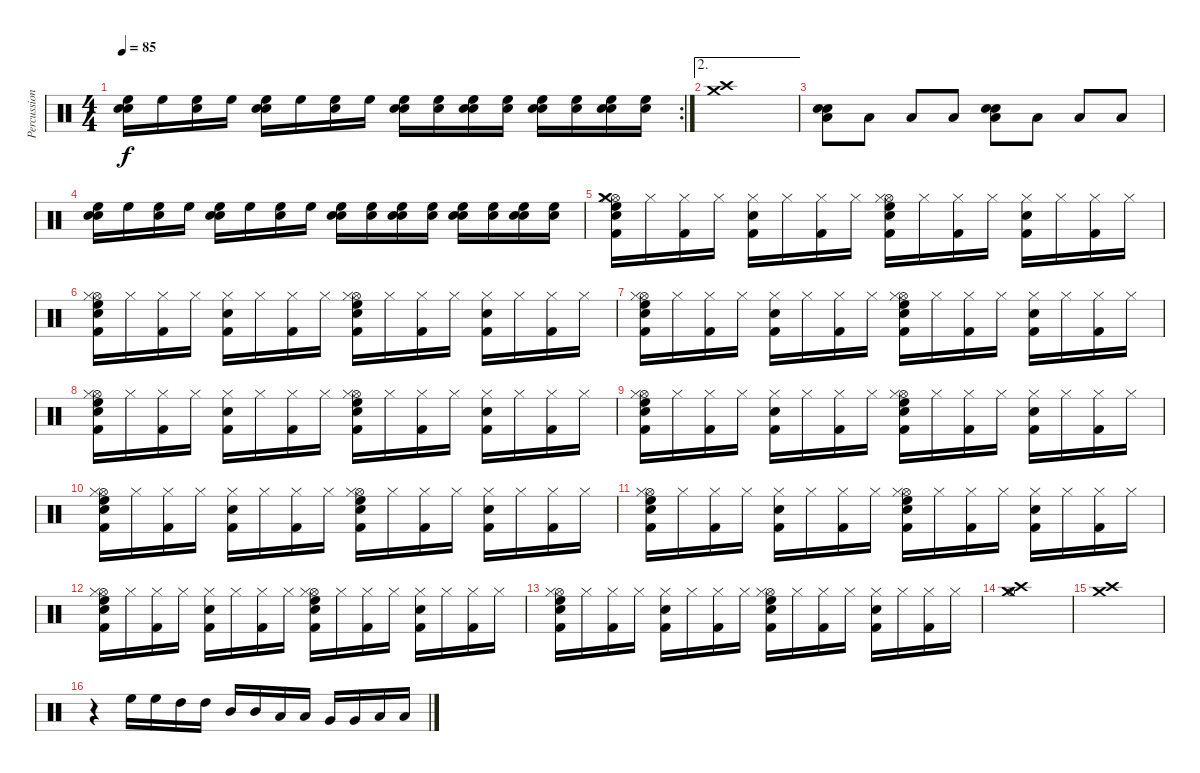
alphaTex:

\track ("Percussions" "Percussion") {instrument percussion}
\staff {score}
\articulation defaults
\rc 2
\ts (4 4)
\tempo 85
\clef neutral
\ks c
("Snare (hit) 2" "Hand Clap (hit)" "High Floor Tom (hit)").16{dy f} "High Floor Tom (hit)".16 ("Snare (hit) 2" "High Floor Tom (hit)").16 "High Floor Tom (hit)".16 ("Snare (hit) 2" "Hand Clap (hit)" "High Floor Tom (hit)").16 "High Floor Tom (hit)".16 ("Snare (hit) 2" "High Floor Tom (hit)").16 "High Floor Tom (hit)".16 ("Snare (hit) 2" "Hand Clap (hit)" "High Floor Tom (hit)").16 ("Snare (hit) 2" "High Floor Tom (hit)").16 ("Snare (hit) 2" "Hand Clap (hit)" "High Floor Tom (hit)").16 ("Snare (hit) 2" "High Floor Tom (hit)").16 ("Snare (hit) 2" "Hand Clap (hit)" "High Floor Tom (hit)").16 ("Snare (hit) 2" "High Floor Tom (hit)").16 ("Snare (hit) 2" "Hand Clap (hit)" "High Floor Tom (hit)").16 ("Snare (hit) 2" "High Floor Tom (hit)").16 |
\ae 2
("Crash medium (hit)" "Crash high (hit)").1 |
("Snare (hit) 2" "Hand Clap (hit)" "Low Floor Tom (hit)").8 "Low Floor Tom (hit)".8 "Low Floor Tom (hit)".8 "Low Floor Tom (hit)".8 ("Snare (hit) 2" "Hand Clap (hit)" "Low Floor Tom (hit)").8 "Low Floor Tom (hit)".8 "Low Floor Tom (hit)".8 "Low Floor Tom (hit)".8 |
("Snare (hit) 2" "Hand Clap (hit)" "High Floor Tom (hit)").16 "High Floor Tom (hit)".16 ("Snare (hit) 2" "High Floor Tom (hit)").16 "High Floor Tom (hit)".16 ("Snare (hit) 2" "Hand Clap (hit)" "High Floor Tom (hit)").16 "High Floor Tom (hit)".16 ("Snare (hit) 2" "High Floor Tom (hit)").16 "High Floor Tom (hit)".16 ("Snare (hit) 2" "Hand Clap (hit)" "High Floor Tom (hit)").16 ("Snare (hit) 2" "High Floor Tom (hit)").16 ("Snare (hit) 2" "Hand Clap (hit)" "High Floor Tom (hit)").16 ("Snare (hit) 2" "High Floor Tom (hit)").16 ("Snare (hit) 2" "Hand Clap (hit)" "High Floor Tom (hit)").16 ("Snare (hit) 2" "High Floor Tom (hit)").16 ("Snare (hit) 2" "Hand Clap (hit)" "High Floor Tom (hit)").16 ("Snare (hit) 2" "High Floor Tom (hit)").16 |
("Hi-Hat (open)" "Snare (hit) 2" "Kick (hit) 2" "High Floor Tom (hit)" "Crash medium (hit)" "Hi-Hat (closed)").16 "Hi-Hat (closed)".16 ("Kick (hit) 2" "Hi-Hat (closed)").16 "Hi-Hat (closed)".16 ("Snare (hit) 2" "Kick (hit) 2" "Hi-Hat (closed)").16 "Hi-Hat (closed)".16 ("Kick (hit) 2" "Hi-Hat (closed)").16 "Hi-Hat (closed)".16 ("Hi-Hat (open)" "Snare (hit) 2" "Kick (hit) 2" "High Floor Tom (hit)" "Hi-Hat (closed)").16 "Hi-Hat (closed)".16 ("Kick (hit) 2" "Hi-Hat (closed)").16 "Hi-Hat (closed)".16 ("Snare (hit) 2" "Kick (hit) 2" "Hi-Hat (closed)").16 "Hi-Hat (closed)".16 ("Kick (hit) 2" "Hi-Hat (closed)").16 "Hi-Hat (closed)".16 |
("Hi-Hat (open)" "Snare (hit) 2" "Kick (hit) 2" "High Floor Tom (hit)" "Hi-Hat (closed)").16 "Hi-Hat (closed)".16 ("Kick (hit) 2" "Hi-Hat (closed)").16 "Hi-Hat (closed)".16 ("Snare (hit) 2" "Kick (hit) 2" "Hi-Hat (closed)").16 "Hi-Hat (closed)".16 ("Kick (hit) 2" "Hi-Hat (closed)").16 "Hi-Hat (closed)".16 ("Hi-Hat (open)" "Snare (hit) 2" "Kick (hit) 2" "High Floor Tom (hit)" "Hi-Hat (closed)").16 "Hi-Hat (closed)".16 ("Kick (hit) 2" "Hi-Hat (closed)").16 "Hi-Hat (closed)".16 ("Snare (hit) 2" "Kick (hit) 2" "Hi-Hat (closed)").16 "Hi-Hat (closed)".16 ("Kick (hit) 2" "Hi-Hat (closed)").16 "Hi-Hat (closed)".16 |
("Hi-Hat (open)" "Snare (hit) 2" "Kick (hit) 2" "High Floor Tom (hit)" "Hi-Hat (closed)").16 "Hi-Hat (closed)".16 ("Kick (hit) 2" "Hi-Hat (closed)").16 "Hi-Hat (closed)".16 ("Snare (hit) 2" "Kick (hit) 2" "Hi-Hat (closed)").16 "Hi-Hat (closed)".16 ("Kick (hit) 2" "Hi-Hat (closed)").16 "Hi-Hat (closed)".16 ("Hi-Hat (open)" "Snare (hit) 2" "Kick (hit) 2" "High Floor Tom (hit)" "Hi-Hat (closed)").16 "Hi-Hat (closed)".16 ("Kick (hit) 2" "Hi-Hat (closed)").16 "Hi-Hat (closed)".16 ("Snare (hit) 2" "Kick (hit) 2" "Hi-Hat (closed)").16 "Hi-Hat (closed)".16 ("Kick (hit) 2" "Hi-Hat (closed)").16 "Hi-Hat (closed)".16 |
("Hi-Hat (open)" "Snare (hit) 2" "Kick (hit) 2" "High Floor Tom (hit)" "Hi-Hat (closed)").16 "Hi-Hat (closed)".16 ("Kick (hit) 2" "Hi-Hat (closed)").16 "Hi-Hat (closed)".16 ("Snare (hit) 2" "Kick (hit) 2" "Hi-Hat (closed)").16 "Hi-Hat (closed)".16 ("Kick (hit) 2" "Hi-Hat (closed)").16 "Hi-Hat (closed)".16 ("Hi-Hat (open)" "Snare (hit) 2" "Kick (hit) 2" "High Floor Tom (hit)" "Hi-Hat (closed)").16 "Hi-Hat (closed)".16 ("Kick (hit) 2" "Hi-Hat (closed)").16 "Hi-Hat (closed)".16 ("Snare (hit) 2" "Kick (hit) 2" "Hi-Hat (closed)").16 "Hi-Hat (closed)".16 ("Kick (hit) 2" "Hi-Hat (closed)").16 "Hi-Hat (closed)".16 |
("Hi-Hat (open)" "Snare (hit) 2" "Kick (hit) 2" "High Floor Tom (hit)" "Hi-Hat (closed)").16 "Hi-Hat (closed)".16 ("Kick (hit) 2" "Hi-Hat (closed)").16 "Hi-Hat (closed)".16 ("Snare (hit) 2" "Kick (hit) 2" "Hi-Hat (closed)").16 "Hi-Hat (closed)".16 ("Kick (hit) 2" "Hi-Hat (closed)").16 "Hi-Hat (closed)".16 ("Hi-Hat (open)" "Snare (hit) 2" "Kick (hit) 2" "High Floor Tom (hit)" "Hi-Hat (closed)").16 "Hi-Hat (closed)".16 ("Kick (hit) 2" "Hi-Hat (closed)").16 "Hi-Hat (closed)".16 ("Snare (hit) 2" "Kick (hit) 2" "Hi-Hat (closed)").16 "Hi-Hat (closed)".16 ("Kick (hit) 2" "Hi-Hat (closed)").16 "Hi-Hat (closed)".16 |
("Hi-Hat (open)" "Snare (hit) 2" "Kick (hit) 2" "High Floor Tom (hit)" "Hi-Hat (closed)").16 "Hi-Hat (closed)".16 ("Kick (hit) 2" "Hi-Hat (closed)").16 "Hi-Hat (closed)".16 ("Snare (hit) 2" "Kick (hit) 2" "Hi-Hat (closed)").16 "Hi-Hat (closed)".16 ("Kick (hit) 2" "Hi-Hat (closed)").16 "Hi-Hat (closed)".16 ("Hi-Hat (open)" "Snare (hit) 2" "Kick (hit) 2" "High Floor Tom (hit)" "Hi-Hat (closed)").16 "Hi-Hat (closed)".16 ("Kick (hit) 2" "Hi-Hat (closed)").16 "Hi-Hat (closed)".16 ("Snare (hit) 2" "Kick (hit) 2" "Hi-Hat (closed)").16 "Hi-Hat (closed)".16 ("Kick (hit) 2" "Hi-Hat (closed)").16 "Hi-Hat (closed)".16 |
("Hi-Hat (open)" "Snare (hit) 2" "Kick (hit) 2" "High Floor Tom (hit)" "Hi-Hat (closed)").16 "Hi-Hat (closed)".16 ("Kick (hit) 2" "Hi-Hat (closed)").16 "Hi-Hat (closed)".16 ("Snare (hit) 2" "Kick (hit) 2" "Hi-Hat (closed)").16 "Hi-Hat (closed)".16 ("Kick (hit) 2" "Hi-Hat (closed)").16 "Hi-Hat (closed)".16 ("Hi-Hat (open)" "Snare (hit) 2" "Kick (hit) 2" "High Floor Tom (hit)" "Hi-Hat (closed)").16 "Hi-Hat (closed)".16 ("Kick (hit) 2" "Hi-Hat (closed)").16 "Hi-Hat (closed)".16 ("Snare (hit) 2" "Kick (hit) 2" "Hi-Hat (closed)").16 "Hi-Hat (closed)".16 ("Kick (hit) 2" "Hi-Hat (closed)").16 "Hi-Hat (closed)".16 |
("Hi-Hat (open)" "Snare (hit) 2" "Kick (hit) 2" "High Floor Tom (hit)" "Hi-Hat (closed)").16 "Hi-Hat (closed)".16 ("Kick (hit) 2" "Hi-Hat (closed)").16 "Hi-Hat (closed)".16 ("Snare (hit) 2" "Kick (hit) 2" "Hi-Hat (closed)").16 "Hi-Hat (closed)".16 ("Kick (hit) 2" "Hi-Hat (closed)").16 "Hi-Hat (closed)".16 ("Hi-Hat (open)" "Snare (hit) 2" "Kick (hit) 2" "High Floor Tom (hit)" "Hi-Hat (closed)").16 "Hi-Hat (closed)".16 ("Kick (hit) 2" "Hi-Hat (closed)").16 "Hi-Hat (closed)".16 ("Snare (hit) 2" "Kick (hit) 2" "Hi-Hat (closed)").16 "Hi-Hat (closed)".16 ("Kick (hit) 2" "Hi-Hat (closed)").16 "Hi-Hat (closed)".16 |
("Hi-Hat (open)" "Snare (hit) 2" "Kick (hit) 2" "High Floor Tom (hit)" "Hi-Hat (closed)").16 "Hi-Hat (closed)".16 ("Kick (hit) 2" "Hi-Hat (closed)").16 "Hi-Hat (closed)".16 ("Snare (hit) 2" "Kick (hit) 2" "Hi-Hat (closed)").16 "Hi-Hat (closed)".16 ("Kick (hit) 2" "Hi-Hat (closed)").16 "Hi-Hat (closed)".16 ("Hi-Hat (open)" "Snare (hit) 2" "Kick (hit) 2" "High Floor Tom (hit)" "Hi-Hat (closed)").16 "Hi-Hat (closed)".16 ("Kick (hit) 2" "Hi-Hat (closed)").16 "Hi-Hat (closed)".16 ("Snare (hit) 2" "Kick (hit) 2" "Hi-Hat (closed)").16 "Hi-Hat (closed)".16 ("Kick (hit) 2" "Hi-Hat (closed)").16 "Hi-Hat (closed)".16 |
("Hi-Hat (open)" "Crash medium (hit)" "Crash high (hit)").1 |
("Crash medium (hit)" "Crash high (hit)").1 |
r.4 "High Floor Tom (hit)".16 "High Floor Tom (hit)".16 "High Tom (hit)".16 "High Tom (hit)".16 "Mid Tom (hit)".16 "Mid Tom (hit)".16 "Low Tom (hit)".16 "Low Tom (hit)".16 "Very Low Tom (hit)".16 "Very Low Tom (hit)".16 "Low Floor Tom (hit)".16 "Low Floor Tom (hit)".16
